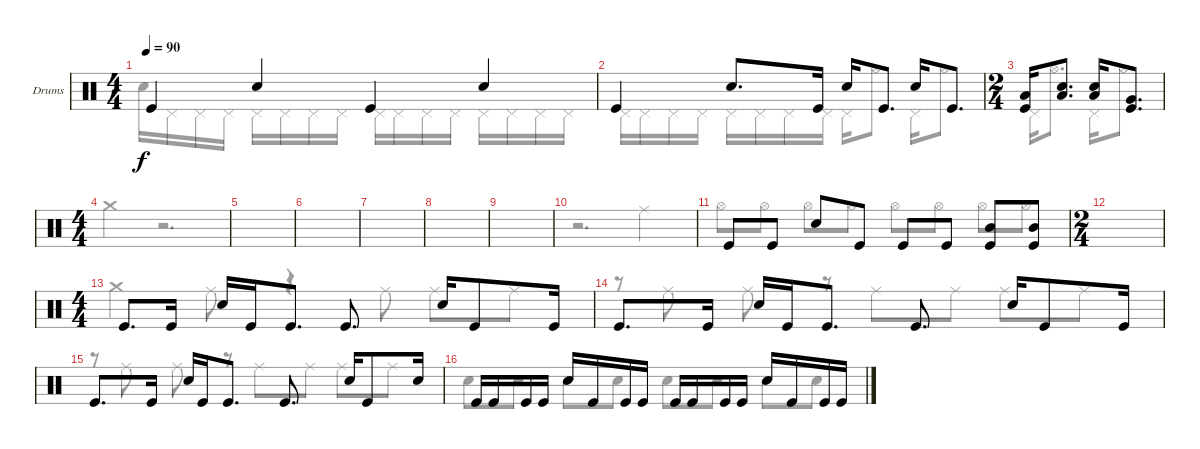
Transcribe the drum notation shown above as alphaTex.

\defaultSystemsLayout 4
\bracketExtendMode groupsimilarinstruments
\firstSystemTrackNameOrientation horizontal
\otherSystemsTrackNameOrientation horizontal
\track ("Drumkit" "Drums") {instrument percussion}
\staff {score}
\articulation defaults
\voice
\ts (4 4)
\tempo 90
\clef neutral
\ks c "Kick (hit)".4{dy f} "Snare (hit) 2".4 "Kick (hit)".4 "Snare (hit) 2".4
|
"Kick (hit)".4 "Snare (hit) 2".8{d} "Kick (hit)".16 "Snare (hit) 2".16 "Kick (hit)".8{d} "Snare (hit) 2".16 "Kick (hit)".8{d} |
\ts (2 4)
("Kick (hit)" "Low Tom (hit)").16 ("Low Tom (hit)" "Snare (hit) 2").8{d} ("Snare (hit) 2" "Low Tom (hit)").16 ("Kick (hit)" "Very Low Tom (hit)").8{d} |
\ts (4 4)
|
|
|
|
|
|
|
"Kick (hit)".8 "Kick (hit)".8 "Snare (hit) 2".8 "Kick (hit)".8 "Kick (hit)".8 "Kick (hit)".8 ("Kick (hit)" "Mid Tom (hit)").8 ("Kick (hit)" "Mid Tom (hit)").8 |
\ts (2 4)
|
\ts (4 4)
"Kick (hit)".8{d} "Kick (hit)".16 "Snare (hit) 2".16 "Kick (hit)".16 "Kick (hit)".8{d} "Kick (hit)".8{d} "Snare (hit) 2".16 "Kick (hit)".8 "Kick (hit)".16 |
"Kick (hit)".8{d} "Kick (hit)".16 "Snare (hit) 2".16 "Kick (hit)".16 "Kick (hit)".8{d} "Kick (hit)".8{d} "Snare (hit) 2".16 "Kick (hit)".8 "Kick (hit)".16 |
"Kick (hit)".8{d} "Kick (hit)".16 "Snare (hit) 2".16 "Kick (hit)".16 "Kick (hit)".8{d} "Kick (hit)".8{d} "Snare (hit) 2".16 "Kick (hit)".8 "Snare (hit) 2".16 |
"Kick (hit)".16 "Kick (hit)".16 "Kick (hit)".16 "Kick (hit)".16 "Snare (hit) 2".16 "Kick (hit)".16 "Kick (hit)".16 "Kick (hit)".16 "Kick (hit)".16 "Kick (hit)".16 "Kick (hit)".16 "Kick (hit)".16 "Snare (hit) 2".16 "Kick (hit)".16 "Kick (hit)".16 "Kick (hit)".16
\voice
\clef neutral
\ottava regular
\simile none
\ks c "Snare (hit) 2".16{dy f} "Pedal Hi-Hat (hit)".16 "Pedal Hi-Hat (hit)".16 "Pedal Hi-Hat (hit)".16 "Pedal Hi-Hat (hit)".16 "Pedal Hi-Hat (hit)".16 "Pedal Hi-Hat (hit)".16 "Pedal Hi-Hat (hit)".16 "Pedal Hi-Hat (hit)".16 "Pedal Hi-Hat (hit)".16 "Pedal Hi-Hat (hit)".16 "Pedal Hi-Hat (hit)".16 "Pedal Hi-Hat (hit)".16 "Pedal Hi-Hat (hit)".16 "Pedal Hi-Hat (hit)".16 "Pedal Hi-Hat (hit)".16
|
"Pedal Hi-Hat (hit)".16 "Pedal Hi-Hat (hit)".16 "Pedal Hi-Hat (hit)".16 "Pedal Hi-Hat (hit)".16 "Pedal Hi-Hat (hit)".16 "Pedal Hi-Hat (hit)".16 "Pedal Hi-Hat (hit)".16 "Pedal Hi-Hat (hit)".16 "Pedal Hi-Hat (hit)".16 "Hi-Hat (open)".8{d} "Pedal Hi-Hat (hit)".16 "Hi-Hat (open)".8{d} |
"Pedal Hi-Hat (hit)".16 "Hi-Hat (open)".8{d} "Pedal Hi-Hat (hit)".16 "Hi-Hat (open)".8{d} |
"Crash medium (hit)".4 r.2{d} |
|
|
|
|
|
r.2{d} "Ride (middle)".4 |
"Hi-Hat (open)".8 "Hi-Hat (open)".8 "Hi-Hat (open)".8 "Hi-Hat (open)".8 "Hi-Hat (open)".8 "Hi-Hat (open)".8 "Hi-Hat (open)".8 "Hi-Hat (open)".8 |
|
"Crash medium (hit)".4 "Ride (middle)".8 r.4 "Ride (middle)".8 "Ride (middle)".8 "Ride (middle)".8 |
r.8 "Ride (middle)".8 "Ride (middle)".8 r.8 "Ride (middle)".8 "Ride (middle)".8 "Ride (middle)".8 "Ride (middle)".8 |
r.8 "Ride (middle)".8 "Ride (middle)".8 r.8 "Ride (middle)".8 "Ride (middle)".8 "Ride (middle)".8 "Ride (middle)".8 |
"Snare (hit) 2".8 "Snare (hit) 2".8 "Snare (hit) 2".8 "Snare (hit) 2".8 "Snare (hit) 2".8 "Snare (hit) 2".8 "Snare (hit) 2".8 "Snare (hit) 2".8
